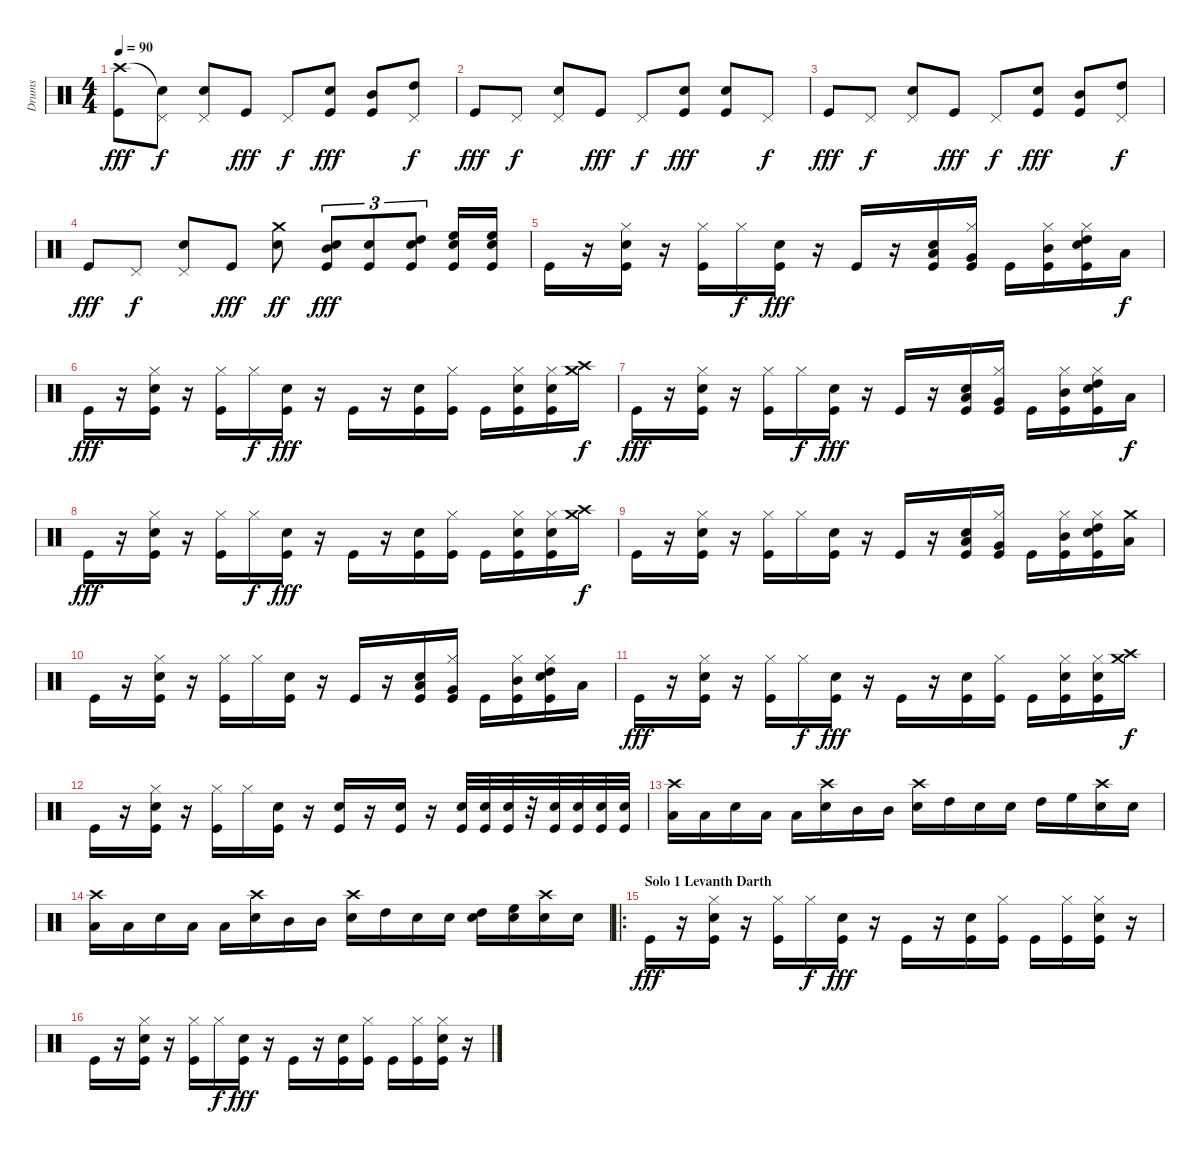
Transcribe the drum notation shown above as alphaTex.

\track ("Drums" "Drums") {instrument percussion}
\staff {score}
\articulation defaults
\ts (4 4)
\tempo 90
\clef neutral
\ks c
("Crash high (hit)"{t} "Kick (hit)").8{dy fff} ("Snare (hit)"{t} "Pedal Hi-Hat (hit)").8{dy f} ("Snare (hit) 2" "Pedal Hi-Hat (hit)").8 "Kick (hit)".8{dy fff} "Pedal Hi-Hat (hit)".8{dy f} ("Snare (hit) 2" "Kick (hit)").8{dy fff} ("Mid Tom (hit)" "Kick (hit)").8 ("High Tom (hit)" "Pedal Hi-Hat (hit)").8{dy f} |
"Kick (hit)".8{dy fff} "Pedal Hi-Hat (hit)".8{dy f} ("Snare (hit) 2" "Pedal Hi-Hat (hit)").8 "Kick (hit)".8{dy fff} "Pedal Hi-Hat (hit)".8{dy f} ("Snare (hit) 2" "Kick (hit)").8{dy fff} ("Snare (hit) 2" "Kick (hit)").8 "Pedal Hi-Hat (hit)".8{dy f} |
"Kick (hit)".8{dy fff} "Pedal Hi-Hat (hit)".8{dy f} ("Snare (hit) 2" "Pedal Hi-Hat (hit)").8 "Kick (hit)".8{dy fff} "Pedal Hi-Hat (hit)".8{dy f} ("Snare (hit) 2" "Kick (hit)").8{dy fff} ("Mid Tom (hit)" "Kick (hit)").8 ("High Tom (hit)" "Pedal Hi-Hat (hit)").8{dy f} |
"Kick (hit)".8{dy fff} "Pedal Hi-Hat (hit)".8{dy f} ("Snare (hit) 2" "Pedal Hi-Hat (hit)").8 "Kick (hit)".8{dy fff} ("Snare (hit) 2" "Crash medium (hit)").8{dy ff} ("Snare (hit) 2" "Mid Tom (hit)" "Kick (hit)").8{tu (3 2) dy fff} ("Snare (hit) 2" "Kick (hit)").8{tu (3 2)} ("Snare (hit) 2" "High Tom (hit)" "Kick (hit)").8{tu (3 2)} ("Snare (hit) 2" "High Floor Tom (hit)" "Kick (hit)").16 ("Snare (hit) 2" "High Floor Tom (hit)" "Kick (hit)").16 |
"Kick (hit)".16 r.16 ("Hi-Hat (closed)" "Snare (hit) 2" "Kick (hit)").16 r.16 ("Hi-Hat (closed)" "Kick (hit)").16 "Hi-Hat (closed)".16{dy f} ("Snare (hit) 2" "Kick (hit)").16{dy fff} r.16 "Kick (hit)".16 r.16 ("Low Floor Tom (hit)" "Snare (hit) 2" "Kick (hit)").16 ("Hi-Hat (closed)" "Very Low Tom (hit)" "Kick (hit)").16 "Kick (hit)".16 ("Hi-Hat (closed)" "Mid Tom (hit)" "Kick (hit)").16 ("Hi-Hat (closed)" "High Tom (hit)" "Snare (hit) 2" "Kick (hit)").16 "Low Tom (hit)".16{dy f} |
"Kick (hit)".16{dy fff} r.16 ("Hi-Hat (closed)" "Snare (hit) 2" "Kick (hit)").16 r.16 ("Hi-Hat (closed)" "Kick (hit)").16 "Hi-Hat (closed)".16{dy f} ("Snare (hit) 2" "Kick (hit)").16{dy fff} r.16 "Kick (hit)".16 r.16 ("Snare (hit) 2" "Kick (hit)").16 ("Hi-Hat (closed)" "Kick (hit)").16 "Kick (hit)".16 ("Hi-Hat (closed)" "Snare (hit) 2" "Kick (hit)").16 ("Hi-Hat (closed)" "Snare (hit) 2" "Kick (hit)").16 ("Crash medium (hit)" "Crash high (hit)").16{dy f} |
"Kick (hit)".16{dy fff} r.16 ("Hi-Hat (closed)" "Snare (hit) 2" "Kick (hit)").16 r.16 ("Hi-Hat (closed)" "Kick (hit)").16 "Hi-Hat (closed)".16{dy f} ("Snare (hit) 2" "Kick (hit)").16{dy fff} r.16 "Kick (hit)".16 r.16 ("Low Floor Tom (hit)" "Snare (hit) 2" "Kick (hit)").16 ("Hi-Hat (closed)" "Very Low Tom (hit)" "Kick (hit)").16 "Kick (hit)".16 ("Hi-Hat (closed)" "Mid Tom (hit)" "Kick (hit)").16 ("Hi-Hat (closed)" "High Tom (hit)" "Snare (hit) 2" "Kick (hit)").16 "Low Tom (hit)".16{dy f} |
"Kick (hit)".16{dy fff} r.16 ("Hi-Hat (closed)" "Snare (hit) 2" "Kick (hit)").16 r.16 ("Hi-Hat (closed)" "Kick (hit)").16 "Hi-Hat (closed)".16{dy f} ("Snare (hit) 2" "Kick (hit)").16{dy fff} r.16 "Kick (hit)".16 r.16 ("Snare (hit) 2" "Kick (hit)").16 ("Hi-Hat (closed)" "Kick (hit)").16 "Kick (hit)".16 ("Hi-Hat (closed)" "Snare (hit) 2" "Kick (hit)").16 ("Hi-Hat (closed)" "Snare (hit) 2" "Kick (hit)").16 ("Crash medium (hit)" "Crash high (hit)").16{dy f} |
"Kick (hit)".16 r.16 ("Hi-Hat (closed)" "Snare (hit) 2" "Kick (hit)").16 r.16 ("Hi-Hat (closed)" "Kick (hit)").16 "Hi-Hat (closed)".16 ("Snare (hit) 2" "Kick (hit)").16 r.16 "Kick (hit)".16 r.16 ("Low Floor Tom (hit)" "Snare (hit) 2" "Kick (hit)").16 ("Hi-Hat (closed)" "Very Low Tom (hit)" "Kick (hit)").16 "Kick (hit)".16 ("Hi-Hat (closed)" "Mid Tom (hit)" "Kick (hit)").16 ("Hi-Hat (closed)" "High Tom (hit)" "Snare (hit) 2" "Kick (hit)").16 ("Low Tom (hit)" "Crash medium (hit)").16 |
"Kick (hit)".16 r.16 ("Hi-Hat (closed)" "Snare (hit) 2" "Kick (hit)").16 r.16 ("Hi-Hat (closed)" "Kick (hit)").16 "Hi-Hat (closed)".16 ("Snare (hit) 2" "Kick (hit)").16 r.16 "Kick (hit)".16 r.16 ("Low Floor Tom (hit)" "Snare (hit) 2" "Kick (hit)").16 ("Hi-Hat (closed)" "Very Low Tom (hit)" "Kick (hit)").16 "Kick (hit)".16 ("Hi-Hat (closed)" "Mid Tom (hit)" "Kick (hit)").16 ("Hi-Hat (closed)" "High Tom (hit)" "Snare (hit) 2" "Kick (hit)").16 "Low Tom (hit)".16 |
"Kick (hit)".16{dy fff} r.16 ("Hi-Hat (closed)" "Snare (hit) 2" "Kick (hit)").16 r.16 ("Hi-Hat (closed)" "Kick (hit)").16 "Hi-Hat (closed)".16{dy f} ("Snare (hit) 2" "Kick (hit)").16{dy fff} r.16 "Kick (hit)".16 r.16 ("Snare (hit) 2" "Kick (hit)").16 ("Hi-Hat (closed)" "Kick (hit)").16 "Kick (hit)".16 ("Hi-Hat (closed)" "Snare (hit) 2" "Kick (hit)").16 ("Hi-Hat (closed)" "Snare (hit) 2" "Kick (hit)").16 ("Crash medium (hit)" "Crash high (hit)").16{dy f} |
"Kick (hit)".16 r.16 ("Hi-Hat (closed)" "Snare (hit) 2" "Kick (hit)").16 r.16 ("Hi-Hat (closed)" "Kick (hit)").16 "Hi-Hat (closed)".16 ("Snare (hit) 2" "Kick (hit)").16 r.16 ("Snare (hit) 2" "Kick (hit)").16 r.16 ("Snare (hit) 2" "Kick (hit)").16 r.16 ("Snare (hit) 2" "Kick (hit)").32 ("Snare (hit) 2" "Kick (hit)").32 ("Snare (hit) 2" "Kick (hit)").32 r.32 ("Snare (hit) 2" "Kick (hit)").32 ("Snare (hit) 2" "Kick (hit)").32 ("Snare (hit) 2" "Kick (hit)").32 ("Snare (hit) 2" "Kick (hit)").32 |
("Crash high (hit)" "Low Tom (hit)").16 "Low Tom (hit)".16 "Snare (hit) 2".16 "Low Tom (hit)".16 "Low Tom (hit)".16 ("Crash high (hit)" "Snare (hit) 2").16 "Mid Tom (hit)".16 "Mid Tom (hit)".16 ("Crash high (hit)" "Snare (hit) 2").16 "High Tom (hit)".16 "Snare (hit) 2".16 "Snare (hit) 2".16 "High Tom (hit)".16 "High Floor Tom (hit)".16 ("Crash high (hit)" "Snare (hit) 2").16 "Snare (hit) 2".16 |
("Crash high (hit)" "Low Tom (hit)").16 "Low Tom (hit)".16 "Snare (hit) 2".16 "Low Tom (hit)".16 "Low Tom (hit)".16 ("Crash high (hit)" "Snare (hit) 2").16 "Mid Tom (hit)".16 "Mid Tom (hit)".16 ("Crash high (hit)" "Snare (hit) 2").16 "High Tom (hit)".16 "Snare (hit) 2".16 "Snare (hit) 2".16 ("High Tom (hit)" "Snare (hit) 2").16 ("High Floor Tom (hit)" "Snare (hit) 2").16 ("Crash high (hit)" "Snare (hit) 2").16 "Snare (hit) 2".16 |
\ro
\section ("" "Solo 1 Levanth Darth")
"Kick (hit)".16{dy fff} r.16 ("Hi-Hat (closed)" "Snare (hit) 2" "Kick (hit)").16 r.16 ("Hi-Hat (closed)" "Kick (hit)").16 "Hi-Hat (closed)".16{dy f} ("Snare (hit) 2" "Kick (hit)").16{dy fff} r.16 "Kick (hit)".16 r.16 ("Snare (hit) 2" "Kick (hit)").16 ("Hi-Hat (closed)" "Kick (hit)").16 "Kick (hit)".16 ("Hi-Hat (closed)" "Kick (hit)").16 ("Hi-Hat (closed)" "Snare (hit) 2" "Kick (hit)").16 r.16 |
"Kick (hit)".16 r.16 ("Hi-Hat (closed)" "Snare (hit) 2" "Kick (hit)").16 r.16 ("Hi-Hat (closed)" "Kick (hit)").16 "Hi-Hat (closed)".16{dy f} ("Snare (hit) 2" "Kick (hit)").16{dy fff} r.16 "Kick (hit)".16 r.16 ("Snare (hit) 2" "Kick (hit)").16 ("Hi-Hat (closed)" "Kick (hit)").16 "Kick (hit)".16 ("Hi-Hat (closed)" "Kick (hit)").16 ("Hi-Hat (closed)" "Snare (hit) 2" "Kick (hit)").16 r.16
